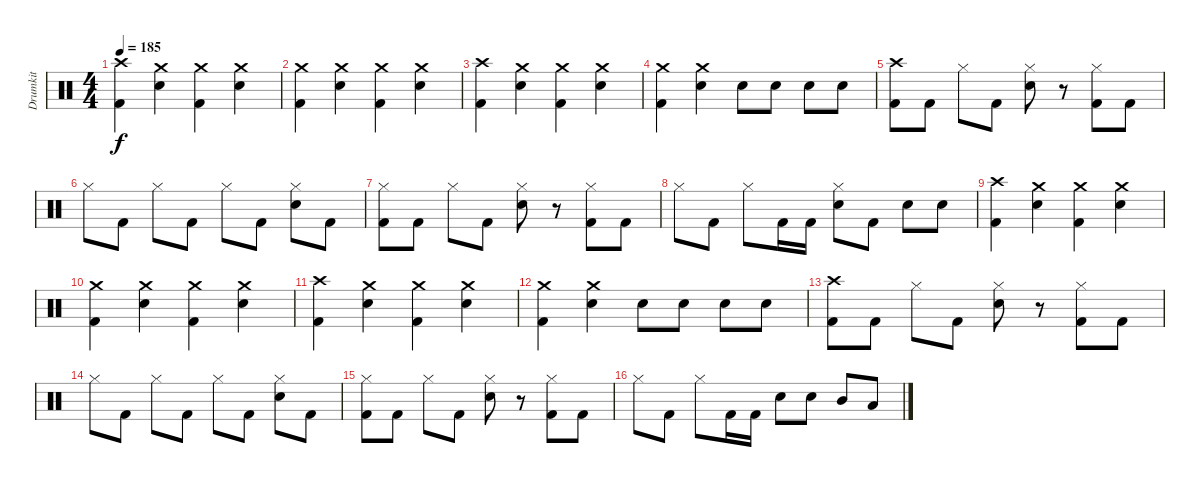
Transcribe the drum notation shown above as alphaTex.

\track ("Drumkit" "Drumkit") {instrument percussion}
\staff {score}
\articulation defaults
\ts (4 4)
\tempo 185
\clef neutral
\ks c
("Crash high (hit)" "Kick (hit) 2").4{dy f} ("Crash medium (hit)" "Electric Snare (hit)").4 ("Crash medium (hit)" "Kick (hit) 2").4 ("Crash medium (hit)" "Electric Snare (hit)").4 |
("Crash medium (hit)" "Kick (hit) 2").4 ("Crash medium (hit)" "Electric Snare (hit)").4 ("Crash medium (hit)" "Kick (hit) 2").4 ("Crash medium (hit)" "Electric Snare (hit)").4 |
("Crash high (hit)" "Kick (hit) 2").4 ("Crash medium (hit)" "Electric Snare (hit)").4 ("Crash medium (hit)" "Kick (hit) 2").4 ("Crash medium (hit)" "Electric Snare (hit)").4 |
("Crash medium (hit)" "Kick (hit) 2").4 ("Crash medium (hit)" "Electric Snare (hit)").4 "Electric Snare (hit)".8 "Electric Snare (hit)".8 "Electric Snare (hit)".8 "Electric Snare (hit)".8 |
("Crash high (hit)" "Kick (hit) 2").8 "Kick (hit) 2".8 "Hi-Hat (closed)".8 "Kick (hit) 2".8 ("Hi-Hat (closed)" "Electric Snare (hit)").8 r.8 ("Hi-Hat (closed)" "Kick (hit) 2").8 "Kick (hit) 2".8 |
"Hi-Hat (closed)".8 "Kick (hit) 2".8 "Hi-Hat (closed)".8 "Kick (hit) 2".8 "Hi-Hat (closed)".8 "Kick (hit) 2".8 ("Hi-Hat (closed)" "Electric Snare (hit)").8 "Kick (hit) 2".8 |
("Hi-Hat (closed)" "Kick (hit) 2").8 "Kick (hit) 2".8 "Hi-Hat (closed)".8 "Kick (hit) 2".8 ("Hi-Hat (closed)" "Electric Snare (hit)").8 r.8 ("Hi-Hat (closed)" "Kick (hit) 2").8 "Kick (hit) 2".8 |
"Hi-Hat (closed)".8 "Kick (hit) 2".8 "Hi-Hat (closed)".8 "Kick (hit) 2".16 "Kick (hit) 2".16 ("Hi-Hat (closed)" "Electric Snare (hit)").8 "Kick (hit) 2".8 "Electric Snare (hit)".8 "Electric Snare (hit)".8 |
("Crash high (hit)" "Kick (hit) 2").4 ("Crash medium (hit)" "Electric Snare (hit)").4 ("Crash medium (hit)" "Kick (hit) 2").4 ("Crash medium (hit)" "Electric Snare (hit)").4 |
("Crash medium (hit)" "Kick (hit) 2").4 ("Crash medium (hit)" "Electric Snare (hit)").4 ("Crash medium (hit)" "Kick (hit) 2").4 ("Crash medium (hit)" "Electric Snare (hit)").4 |
("Crash high (hit)" "Kick (hit) 2").4 ("Crash medium (hit)" "Electric Snare (hit)").4 ("Crash medium (hit)" "Kick (hit) 2").4 ("Crash medium (hit)" "Electric Snare (hit)").4 |
("Crash medium (hit)" "Kick (hit) 2").4 ("Crash medium (hit)" "Electric Snare (hit)").4 "Electric Snare (hit)".8 "Electric Snare (hit)".8 "Electric Snare (hit)".8 "Electric Snare (hit)".8 |
("Crash high (hit)" "Kick (hit) 2").8 "Kick (hit) 2".8 "Hi-Hat (closed)".8 "Kick (hit) 2".8 ("Hi-Hat (closed)" "Electric Snare (hit)").8 r.8 ("Hi-Hat (closed)" "Kick (hit) 2").8 "Kick (hit) 2".8 |
"Hi-Hat (closed)".8 "Kick (hit) 2".8 "Hi-Hat (closed)".8 "Kick (hit) 2".8 "Hi-Hat (closed)".8 "Kick (hit) 2".8 ("Hi-Hat (closed)" "Electric Snare (hit)").8 "Kick (hit) 2".8 |
("Hi-Hat (closed)" "Kick (hit) 2").8 "Kick (hit) 2".8 "Hi-Hat (closed)".8 "Kick (hit) 2".8 ("Hi-Hat (closed)" "Electric Snare (hit)").8 r.8 ("Hi-Hat (closed)" "Kick (hit) 2").8 "Kick (hit) 2".8 |
"Hi-Hat (closed)".8 "Kick (hit) 2".8 "Hi-Hat (closed)".8 "Kick (hit) 2".16 "Kick (hit) 2".16 "Electric Snare (hit)".8 "Electric Snare (hit)".8 "Mid Tom (hit)".8 "Low Tom (hit)".8
